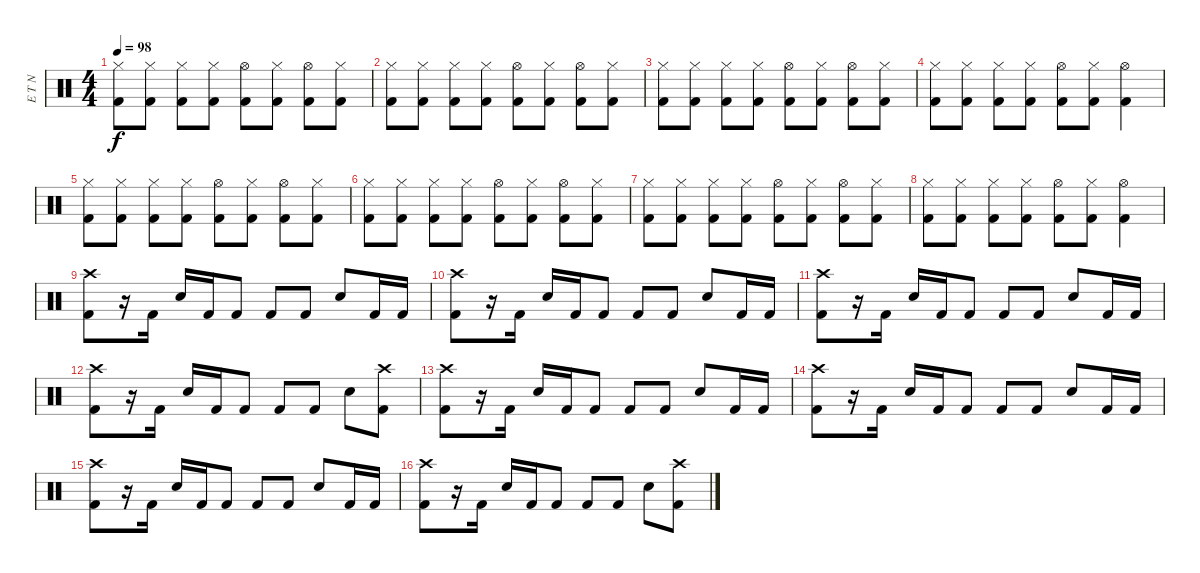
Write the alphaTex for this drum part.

\track ("E T N" "E T N") {instrument percussion}
\staff {score}
\articulation defaults
\ts (4 4)
\tempo 98
\clef neutral
\ks c
("Hi-Hat (closed)" "Kick (hit) 2").8{dy f} ("Hi-Hat (closed)" "Kick (hit) 2").8 ("Hi-Hat (closed)" "Kick (hit) 2").8 ("Hi-Hat (closed)" "Kick (hit) 2").8 ("Hi-Hat (open)" "Kick (hit) 2").8 ("Hi-Hat (closed)" "Kick (hit) 2").8 ("Hi-Hat (open)" "Kick (hit) 2").8 ("Hi-Hat (closed)" "Kick (hit) 2").8 |
("Hi-Hat (closed)" "Kick (hit) 2").8 ("Hi-Hat (closed)" "Kick (hit) 2").8 ("Hi-Hat (closed)" "Kick (hit) 2").8 ("Hi-Hat (closed)" "Kick (hit) 2").8 ("Hi-Hat (open)" "Kick (hit) 2").8 ("Hi-Hat (closed)" "Kick (hit) 2").8 ("Hi-Hat (open)" "Kick (hit) 2").8 ("Hi-Hat (closed)" "Kick (hit) 2").8 |
("Hi-Hat (closed)" "Kick (hit) 2").8 ("Hi-Hat (closed)" "Kick (hit) 2").8 ("Hi-Hat (closed)" "Kick (hit) 2").8 ("Hi-Hat (closed)" "Kick (hit) 2").8 ("Hi-Hat (open)" "Kick (hit) 2").8 ("Hi-Hat (closed)" "Kick (hit) 2").8 ("Hi-Hat (open)" "Kick (hit) 2").8 ("Hi-Hat (closed)" "Kick (hit) 2").8 |
("Hi-Hat (closed)" "Kick (hit) 2").8 ("Hi-Hat (closed)" "Kick (hit) 2").8 ("Hi-Hat (closed)" "Kick (hit) 2").8 ("Hi-Hat (closed)" "Kick (hit) 2").8 ("Hi-Hat (open)" "Kick (hit) 2").8 ("Hi-Hat (closed)" "Kick (hit) 2").8 ("Hi-Hat (open)" "Kick (hit) 2").4 |
("Hi-Hat (closed)" "Kick (hit) 2").8 ("Hi-Hat (closed)" "Kick (hit) 2").8 ("Hi-Hat (closed)" "Kick (hit) 2").8 ("Hi-Hat (closed)" "Kick (hit) 2").8 ("Hi-Hat (open)" "Kick (hit) 2").8 ("Hi-Hat (closed)" "Kick (hit) 2").8 ("Hi-Hat (open)" "Kick (hit) 2").8 ("Hi-Hat (closed)" "Kick (hit) 2").8 |
("Hi-Hat (closed)" "Kick (hit) 2").8 ("Hi-Hat (closed)" "Kick (hit) 2").8 ("Hi-Hat (closed)" "Kick (hit) 2").8 ("Hi-Hat (closed)" "Kick (hit) 2").8 ("Hi-Hat (open)" "Kick (hit) 2").8 ("Hi-Hat (closed)" "Kick (hit) 2").8 ("Hi-Hat (open)" "Kick (hit) 2").8 ("Hi-Hat (closed)" "Kick (hit) 2").8 |
("Hi-Hat (closed)" "Kick (hit) 2").8 ("Hi-Hat (closed)" "Kick (hit) 2").8 ("Hi-Hat (closed)" "Kick (hit) 2").8 ("Hi-Hat (closed)" "Kick (hit) 2").8 ("Hi-Hat (open)" "Kick (hit) 2").8 ("Hi-Hat (closed)" "Kick (hit) 2").8 ("Hi-Hat (open)" "Kick (hit) 2").8 ("Hi-Hat (closed)" "Kick (hit) 2").8 |
("Hi-Hat (closed)" "Kick (hit) 2").8 ("Hi-Hat (closed)" "Kick (hit) 2").8 ("Hi-Hat (closed)" "Kick (hit) 2").8 ("Hi-Hat (closed)" "Kick (hit) 2").8 ("Hi-Hat (open)" "Kick (hit) 2").8 ("Hi-Hat (closed)" "Kick (hit) 2").8 ("Hi-Hat (open)" "Kick (hit) 2").4 |
("Crash high (hit)" "Kick (hit) 2").8 r.16 "Kick (hit) 2".16 "Electric Snare (hit)".16 "Kick (hit) 2".16 "Kick (hit) 2".8 "Kick (hit) 2".8 "Kick (hit) 2".8 "Electric Snare (hit)".8 "Kick (hit) 2".16 "Kick (hit) 2".16 |
("Crash high (hit)" "Kick (hit) 2").8 r.16 "Kick (hit) 2".16 "Electric Snare (hit)".16 "Kick (hit) 2".16 "Kick (hit) 2".8 "Kick (hit) 2".8 "Kick (hit) 2".8 "Electric Snare (hit)".8 "Kick (hit) 2".16 "Kick (hit) 2".16 |
("Crash high (hit)" "Kick (hit) 2").8 r.16 "Kick (hit) 2".16 "Electric Snare (hit)".16 "Kick (hit) 2".16 "Kick (hit) 2".8 "Kick (hit) 2".8 "Kick (hit) 2".8 "Electric Snare (hit)".8 "Kick (hit) 2".16 "Kick (hit) 2".16 |
("Crash high (hit)" "Kick (hit) 2").8 r.16 "Kick (hit) 2".16 "Electric Snare (hit)".16 "Kick (hit) 2".16 "Kick (hit) 2".8 "Kick (hit) 2".8 "Kick (hit) 2".8 "Electric Snare (hit)".8 ("Crash high (hit)" "Kick (hit) 2").8 |
("Crash high (hit)" "Kick (hit) 2").8 r.16 "Kick (hit) 2".16 "Electric Snare (hit)".16 "Kick (hit) 2".16 "Kick (hit) 2".8 "Kick (hit) 2".8 "Kick (hit) 2".8 "Electric Snare (hit)".8 "Kick (hit) 2".16 "Kick (hit) 2".16 |
("Crash high (hit)" "Kick (hit) 2").8 r.16 "Kick (hit) 2".16 "Electric Snare (hit)".16 "Kick (hit) 2".16 "Kick (hit) 2".8 "Kick (hit) 2".8 "Kick (hit) 2".8 "Electric Snare (hit)".8 "Kick (hit) 2".16 "Kick (hit) 2".16 |
("Crash high (hit)" "Kick (hit) 2").8 r.16 "Kick (hit) 2".16 "Electric Snare (hit)".16 "Kick (hit) 2".16 "Kick (hit) 2".8 "Kick (hit) 2".8 "Kick (hit) 2".8 "Electric Snare (hit)".8 "Kick (hit) 2".16 "Kick (hit) 2".16 |
("Crash high (hit)" "Kick (hit) 2").8 r.16 "Kick (hit) 2".16 "Electric Snare (hit)".16 "Kick (hit) 2".16 "Kick (hit) 2".8 "Kick (hit) 2".8 "Kick (hit) 2".8 "Electric Snare (hit)".8 ("Crash high (hit)" "Kick (hit) 2").8
